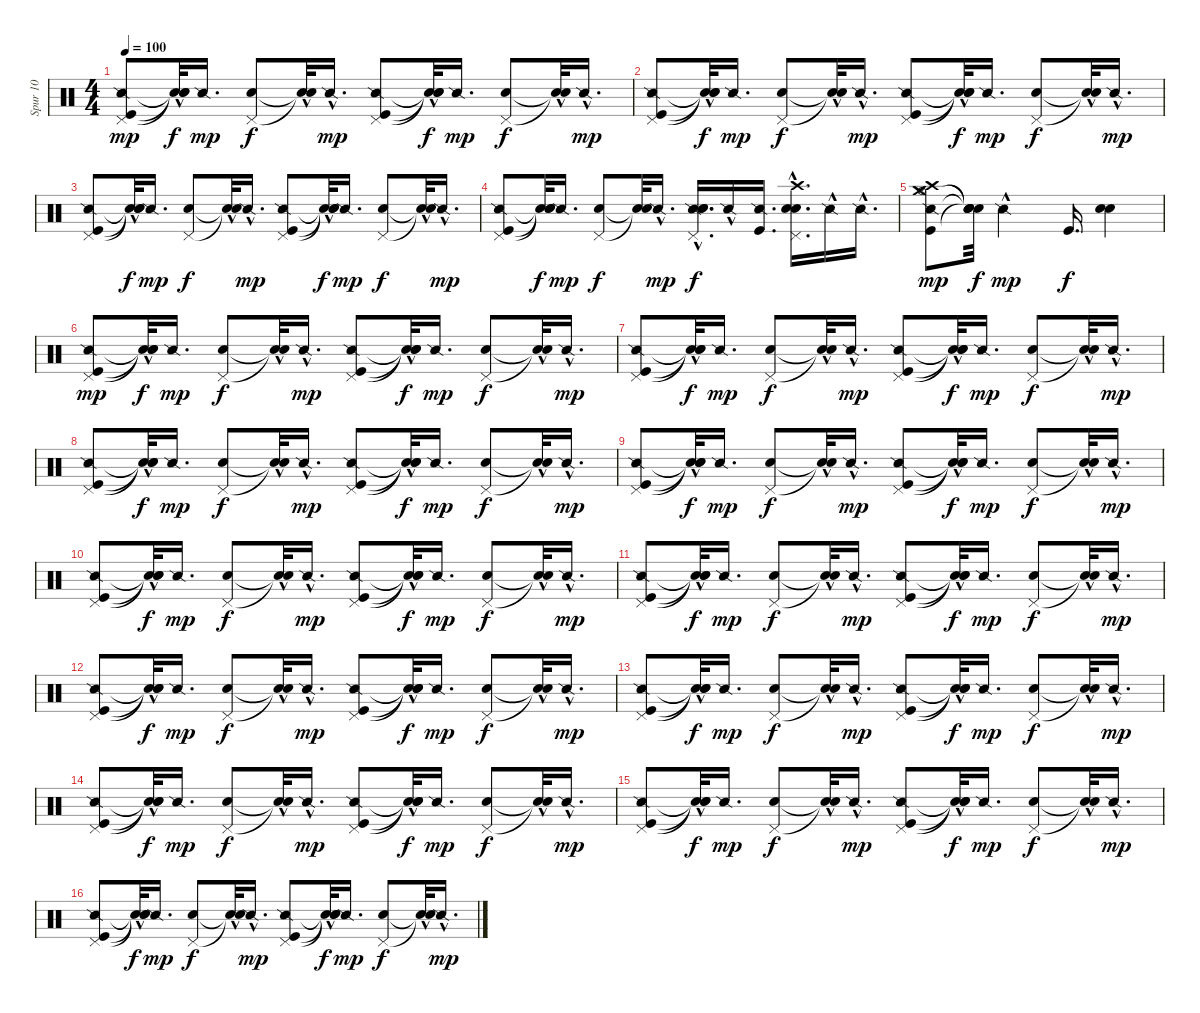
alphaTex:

\track ("Spur 10" "Spur 10") {instrument percussion}
\staff {score}
\articulation defaults
\ts (4 4)
\tempo 100
\clef neutral
\ks c
("Snare (side stick) 2" "Kick (hit)" "Pedal Hi-Hat (hit)").8{dy mp} ("Snare (hit)"{t} "Snare (hit)"{hac t} "Snare (hit)"{t}).32{dy f} "Snare (side stick) 2".16{d dy mp} ("Electric Snare (hit)" "Pedal Hi-Hat (hit)").8{dy f} ("Snare (hit)"{hac t} "Snare (hit)"{t}).32 "Snare (side stick) 2"{hac}.16{d dy mp} ("Snare (side stick) 2" "Kick (hit)" "Pedal Hi-Hat (hit)").8 ("Snare (hit)"{t} "Snare (hit)"{hac t} "Snare (hit)"{t}).32{dy f} "Snare (side stick) 2".16{d dy mp} ("Electric Snare (hit)" "Pedal Hi-Hat (hit)").8{dy f} ("Snare (hit)"{hac t} "Snare (hit)"{t}).32 "Snare (side stick) 2"{hac}.16{d dy mp} |
("Snare (side stick) 2" "Kick (hit)" "Pedal Hi-Hat (hit)").8 ("Snare (hit)"{t} "Snare (hit)"{hac t} "Snare (hit)"{t}).32{dy f} "Snare (side stick) 2".16{d dy mp} ("Electric Snare (hit)" "Pedal Hi-Hat (hit)").8{dy f} ("Snare (hit)"{hac t} "Snare (hit)"{t}).32 "Snare (side stick) 2"{hac}.16{d dy mp} ("Snare (side stick) 2" "Kick (hit)" "Pedal Hi-Hat (hit)").8 ("Snare (hit)"{t} "Snare (hit)"{hac t} "Snare (hit)"{t}).32{dy f} "Snare (side stick) 2".16{d dy mp} ("Electric Snare (hit)" "Pedal Hi-Hat (hit)").8{dy f} ("Snare (hit)"{hac t} "Snare (hit)"{t}).32 "Snare (side stick) 2"{hac}.16{d dy mp} |
("Snare (side stick) 2" "Kick (hit)" "Pedal Hi-Hat (hit)").8 ("Snare (hit)"{t} "Snare (hit)"{hac t} "Snare (hit)"{t}).32{dy f} "Snare (side stick) 2".16{d dy mp} ("Electric Snare (hit)" "Pedal Hi-Hat (hit)").8{dy f} ("Snare (hit)"{hac t} "Snare (hit)"{t}).32 "Snare (side stick) 2"{hac}.16{d dy mp} ("Snare (side stick) 2" "Kick (hit)" "Pedal Hi-Hat (hit)").8 ("Snare (hit)"{t} "Snare (hit)"{hac t} "Snare (hit)"{t}).32{dy f} "Snare (side stick) 2".16{d dy mp} ("Electric Snare (hit)" "Pedal Hi-Hat (hit)").8{dy f} ("Snare (hit)"{hac t} "Snare (hit)"{t}).32 "Snare (side stick) 2"{hac}.16{d dy mp} |
("Snare (side stick) 2" "Kick (hit)" "Pedal Hi-Hat (hit)").8 ("Snare (hit)"{t} "Snare (hit)"{t} "Snare (hit)"{t}).32{dy f} "Snare (side stick) 2".16{d dy mp} ("Electric Snare (hit)" "Pedal Hi-Hat (hit)").8{dy f} ("Snare (hit)"{t} "Snare (hit)"{t}).32 "Snare (side stick) 2"{hac}.16{d dy mp} ("Snare (side stick) 2"{hac} "Metronome (bell)" "Electric Snare (hit)" "Pedal Hi-Hat (hit)").16{d dy f} "Snare (side stick) 2"{hac}.16 ("Snare (side stick) 2" "Kick (hit)").16{d} ("Metronome (bell)"{hac} "Electric Snare (hit)" "Pedal Hi-Hat (hit)" "Crash high (hit)").16{d} "Snare (side stick) 2"{hac}.16 "Snare (side stick) 2"{hac}.16{d} |
("Crash medium (hit)" "Snare (side stick) 2" "Kick (hit)" "Hi-Hat (open)" "Crash high (hit)").8{dy mp} ("Snare (hit)"{t} "Snare (hit)"{t} "Snare (hit)"{t} "Snare (hit)"{t}).32{dy f} "Snare (side stick) 2"{hac}.2{dy mp} "Kick (hit)".16{d dy f} ("Electric Snare (hit)" "Metronome (bell)").4 |
("Snare (side stick) 2" "Kick (hit)" "Pedal Hi-Hat (hit)").8{dy mp} ("Snare (hit)"{t} "Snare (hit)"{hac t} "Snare (hit)"{t}).32{dy f} "Snare (side stick) 2".16{d dy mp} ("Electric Snare (hit)" "Pedal Hi-Hat (hit)").8{dy f} ("Snare (hit)"{hac t} "Snare (hit)"{t}).32 "Snare (side stick) 2"{hac}.16{d dy mp} ("Snare (side stick) 2" "Kick (hit)" "Pedal Hi-Hat (hit)").8 ("Snare (hit)"{t} "Snare (hit)"{hac t} "Snare (hit)"{t}).32{dy f} "Snare (side stick) 2".16{d dy mp} ("Electric Snare (hit)" "Pedal Hi-Hat (hit)").8{dy f} ("Snare (hit)"{hac t} "Snare (hit)"{t}).32 "Snare (side stick) 2"{hac}.16{d dy mp} |
("Snare (side stick) 2" "Kick (hit)" "Pedal Hi-Hat (hit)").8 ("Snare (hit)"{t} "Snare (hit)"{hac t} "Snare (hit)"{t}).32{dy f} "Snare (side stick) 2".16{d dy mp} ("Electric Snare (hit)" "Pedal Hi-Hat (hit)").8{dy f} ("Snare (hit)"{hac t} "Snare (hit)"{t}).32 "Snare (side stick) 2"{hac}.16{d dy mp} ("Snare (side stick) 2" "Kick (hit)" "Pedal Hi-Hat (hit)").8 ("Snare (hit)"{t} "Snare (hit)"{hac t} "Snare (hit)"{t}).32{dy f} "Snare (side stick) 2".16{d dy mp} ("Electric Snare (hit)" "Pedal Hi-Hat (hit)").8{dy f} ("Snare (hit)"{hac t} "Snare (hit)"{t}).32 "Snare (side stick) 2"{hac}.16{d dy mp} |
("Snare (side stick) 2" "Kick (hit)" "Pedal Hi-Hat (hit)").8 ("Snare (hit)"{t} "Snare (hit)"{hac t} "Snare (hit)"{t}).32{dy f} "Snare (side stick) 2".16{d dy mp} ("Electric Snare (hit)" "Pedal Hi-Hat (hit)").8{dy f} ("Snare (hit)"{hac t} "Snare (hit)"{t}).32 "Snare (side stick) 2"{hac}.16{d dy mp} ("Snare (side stick) 2" "Kick (hit)" "Pedal Hi-Hat (hit)").8 ("Snare (hit)"{t} "Snare (hit)"{hac t} "Snare (hit)"{t}).32{dy f} "Snare (side stick) 2".16{d dy mp} ("Electric Snare (hit)" "Pedal Hi-Hat (hit)").8{dy f} ("Snare (hit)"{hac t} "Snare (hit)"{t}).32 "Snare (side stick) 2"{hac}.16{d dy mp} |
("Snare (side stick) 2" "Kick (hit)" "Pedal Hi-Hat (hit)").8 ("Snare (hit)"{t} "Snare (hit)"{hac t} "Snare (hit)"{t}).32{dy f} "Snare (side stick) 2".16{d dy mp} ("Electric Snare (hit)" "Pedal Hi-Hat (hit)").8{dy f} ("Snare (hit)"{hac t} "Snare (hit)"{t}).32 "Snare (side stick) 2"{hac}.16{d dy mp} ("Snare (side stick) 2" "Kick (hit)" "Pedal Hi-Hat (hit)").8 ("Snare (hit)"{t} "Snare (hit)"{hac t} "Snare (hit)"{t}).32{dy f} "Snare (side stick) 2".16{d dy mp} ("Electric Snare (hit)" "Pedal Hi-Hat (hit)").8{dy f} ("Snare (hit)"{hac t} "Snare (hit)"{t}).32 "Snare (side stick) 2"{hac}.16{d dy mp} |
("Snare (side stick) 2" "Kick (hit)" "Pedal Hi-Hat (hit)").8 ("Snare (hit)"{t} "Snare (hit)"{hac t} "Snare (hit)"{t}).32{dy f} "Snare (side stick) 2".16{d dy mp} ("Electric Snare (hit)" "Pedal Hi-Hat (hit)").8{dy f} ("Snare (hit)"{hac t} "Snare (hit)"{t}).32 "Snare (side stick) 2"{hac}.16{d dy mp} ("Snare (side stick) 2" "Kick (hit)" "Pedal Hi-Hat (hit)").8 ("Snare (hit)"{t} "Snare (hit)"{hac t} "Snare (hit)"{t}).32{dy f} "Snare (side stick) 2".16{d dy mp} ("Electric Snare (hit)" "Pedal Hi-Hat (hit)").8{dy f} ("Snare (hit)"{hac t} "Snare (hit)"{t}).32 "Snare (side stick) 2"{hac}.16{d dy mp} |
("Snare (side stick) 2" "Kick (hit)" "Pedal Hi-Hat (hit)").8 ("Snare (hit)"{t} "Snare (hit)"{hac t} "Snare (hit)"{t}).32{dy f} "Snare (side stick) 2".16{d dy mp} ("Electric Snare (hit)" "Pedal Hi-Hat (hit)").8{dy f} ("Snare (hit)"{hac t} "Snare (hit)"{t}).32 "Snare (side stick) 2"{hac}.16{d dy mp} ("Snare (side stick) 2" "Kick (hit)" "Pedal Hi-Hat (hit)").8 ("Snare (hit)"{t} "Snare (hit)"{hac t} "Snare (hit)"{t}).32{dy f} "Snare (side stick) 2".16{d dy mp} ("Electric Snare (hit)" "Pedal Hi-Hat (hit)").8{dy f} ("Snare (hit)"{hac t} "Snare (hit)"{t}).32 "Snare (side stick) 2"{hac}.16{d dy mp} |
("Snare (side stick) 2" "Kick (hit)" "Pedal Hi-Hat (hit)").8 ("Snare (hit)"{t} "Snare (hit)"{hac t} "Snare (hit)"{t}).32{dy f} "Snare (side stick) 2".16{d dy mp} ("Electric Snare (hit)" "Pedal Hi-Hat (hit)").8{dy f} ("Snare (hit)"{hac t} "Snare (hit)"{t}).32 "Snare (side stick) 2"{hac}.16{d dy mp} ("Snare (side stick) 2" "Kick (hit)" "Pedal Hi-Hat (hit)").8 ("Snare (hit)"{t} "Snare (hit)"{hac t} "Snare (hit)"{t}).32{dy f} "Snare (side stick) 2".16{d dy mp} ("Electric Snare (hit)" "Pedal Hi-Hat (hit)").8{dy f} ("Snare (hit)"{hac t} "Snare (hit)"{t}).32 "Snare (side stick) 2"{hac}.16{d dy mp} |
("Snare (side stick) 2" "Kick (hit)" "Pedal Hi-Hat (hit)").8 ("Snare (hit)"{t} "Snare (hit)"{hac t} "Snare (hit)"{t}).32{dy f} "Snare (side stick) 2".16{d dy mp} ("Electric Snare (hit)" "Pedal Hi-Hat (hit)").8{dy f} ("Snare (hit)"{hac t} "Snare (hit)"{t}).32 "Snare (side stick) 2"{hac}.16{d dy mp} ("Snare (side stick) 2" "Kick (hit)" "Pedal Hi-Hat (hit)").8 ("Snare (hit)"{t} "Snare (hit)"{hac t} "Snare (hit)"{t}).32{dy f} "Snare (side stick) 2".16{d dy mp} ("Electric Snare (hit)" "Pedal Hi-Hat (hit)").8{dy f} ("Snare (hit)"{hac t} "Snare (hit)"{t}).32 "Snare (side stick) 2"{hac}.16{d dy mp} |
("Snare (side stick) 2" "Kick (hit)" "Pedal Hi-Hat (hit)").8 ("Snare (hit)"{t} "Snare (hit)"{hac t} "Snare (hit)"{t}).32{dy f} "Snare (side stick) 2".16{d dy mp} ("Electric Snare (hit)" "Pedal Hi-Hat (hit)").8{dy f} ("Snare (hit)"{hac t} "Snare (hit)"{t}).32 "Snare (side stick) 2"{hac}.16{d dy mp} ("Snare (side stick) 2" "Kick (hit)" "Pedal Hi-Hat (hit)").8 ("Snare (hit)"{t} "Snare (hit)"{hac t} "Snare (hit)"{t}).32{dy f} "Snare (side stick) 2".16{d dy mp} ("Electric Snare (hit)" "Pedal Hi-Hat (hit)").8{dy f} ("Snare (hit)"{hac t} "Snare (hit)"{t}).32 "Snare (side stick) 2"{hac}.16{d dy mp} |
("Snare (side stick) 2" "Kick (hit)" "Pedal Hi-Hat (hit)").8 ("Snare (hit)"{t} "Snare (hit)"{hac t} "Snare (hit)"{t}).32{dy f} "Snare (side stick) 2".16{d dy mp} ("Electric Snare (hit)" "Pedal Hi-Hat (hit)").8{dy f} ("Snare (hit)"{hac t} "Snare (hit)"{t}).32 "Snare (side stick) 2"{hac}.16{d dy mp} ("Snare (side stick) 2" "Kick (hit)" "Pedal Hi-Hat (hit)").8 ("Snare (hit)"{t} "Snare (hit)"{hac t} "Snare (hit)"{t}).32{dy f} "Snare (side stick) 2".16{d dy mp} ("Electric Snare (hit)" "Pedal Hi-Hat (hit)").8{dy f} ("Snare (hit)"{hac t} "Snare (hit)"{t}).32 "Snare (side stick) 2"{hac}.16{d dy mp} |
("Snare (side stick) 2" "Kick (hit)" "Pedal Hi-Hat (hit)").8 ("Snare (hit)"{t} "Snare (hit)"{hac t} "Snare (hit)"{t}).32{dy f} "Snare (side stick) 2".16{d dy mp} ("Electric Snare (hit)" "Pedal Hi-Hat (hit)").8{dy f} ("Snare (hit)"{hac t} "Snare (hit)"{t}).32 "Snare (side stick) 2"{hac}.16{d dy mp} ("Snare (side stick) 2" "Kick (hit)" "Pedal Hi-Hat (hit)").8 ("Snare (hit)"{t} "Snare (hit)"{hac t} "Snare (hit)"{t}).32{dy f} "Snare (side stick) 2".16{d dy mp} ("Electric Snare (hit)" "Pedal Hi-Hat (hit)").8{dy f} ("Snare (hit)"{hac t} "Snare (hit)"{t}).32 "Snare (side stick) 2"{hac}.16{d dy mp}
